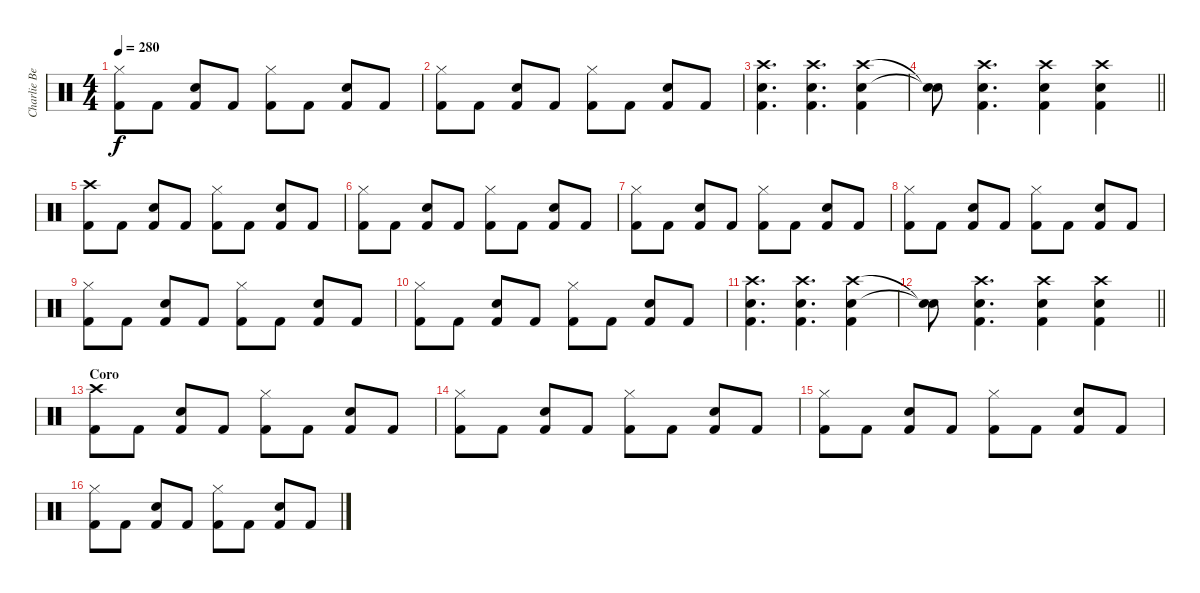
\track ("Charlie Benante" "Charlie Be") {instrument percussion}
\staff {score}
\articulation defaults
\ts (4 4)
\tempo 280
\clef neutral
\ks c
("Hi-Hat (closed)" "Kick (hit) 2").8{dy f} "Kick (hit) 2".8 ("Snare (hit) 2" "Kick (hit) 2").8 "Kick (hit) 2".8 ("Hi-Hat (closed)" "Kick (hit) 2").8 "Kick (hit) 2".8 ("Snare (hit) 2" "Kick (hit) 2").8 "Kick (hit) 2".8 |
("Hi-Hat (closed)" "Kick (hit) 2").8 "Kick (hit) 2".8 ("Snare (hit) 2" "Kick (hit) 2").8 "Kick (hit) 2".8 ("Hi-Hat (closed)" "Kick (hit) 2").8 "Kick (hit) 2".8 ("Snare (hit) 2" "Kick (hit) 2").8 "Kick (hit) 2".8 |
("Crash high (hit)" "Snare (hit) 2" "Kick (hit) 2").4{d} ("Crash high (hit)" "Snare (hit) 2" "Kick (hit) 2").4{d} ("Crash high (hit)" "Snare (hit) 2" "Kick (hit) 2").4 |
\barLineRight lightlight
("Snare (hit)"{t} "Snare (hit)"{t}).8 ("Crash high (hit)" "Snare (hit) 2" "Kick (hit) 2").4{d} ("Crash high (hit)" "Snare (hit) 2" "Kick (hit) 2").4 ("Crash high (hit)" "Snare (hit) 2" "Kick (hit) 2").4 |
("Crash high (hit)" "Kick (hit) 2").8 "Kick (hit) 2".8 ("Snare (hit) 2" "Kick (hit) 2").8 "Kick (hit) 2".8 ("Hi-Hat (closed)" "Kick (hit) 2").8 "Kick (hit) 2".8 ("Snare (hit) 2" "Kick (hit) 2").8 "Kick (hit) 2".8 |
("Hi-Hat (closed)" "Kick (hit) 2").8 "Kick (hit) 2".8 ("Snare (hit) 2" "Kick (hit) 2").8 "Kick (hit) 2".8 ("Hi-Hat (closed)" "Kick (hit) 2").8 "Kick (hit) 2".8 ("Snare (hit) 2" "Kick (hit) 2").8 "Kick (hit) 2".8 |
("Hi-Hat (closed)" "Kick (hit) 2").8 "Kick (hit) 2".8 ("Snare (hit) 2" "Kick (hit) 2").8 "Kick (hit) 2".8 ("Hi-Hat (closed)" "Kick (hit) 2").8 "Kick (hit) 2".8 ("Snare (hit) 2" "Kick (hit) 2").8 "Kick (hit) 2".8 |
("Hi-Hat (closed)" "Kick (hit) 2").8 "Kick (hit) 2".8 ("Snare (hit) 2" "Kick (hit) 2").8 "Kick (hit) 2".8 ("Hi-Hat (closed)" "Kick (hit) 2").8 "Kick (hit) 2".8 ("Snare (hit) 2" "Kick (hit) 2").8 "Kick (hit) 2".8 |
("Hi-Hat (closed)" "Kick (hit) 2").8 "Kick (hit) 2".8 ("Snare (hit) 2" "Kick (hit) 2").8 "Kick (hit) 2".8 ("Hi-Hat (closed)" "Kick (hit) 2").8 "Kick (hit) 2".8 ("Snare (hit) 2" "Kick (hit) 2").8 "Kick (hit) 2".8 |
("Hi-Hat (closed)" "Kick (hit) 2").8 "Kick (hit) 2".8 ("Snare (hit) 2" "Kick (hit) 2").8 "Kick (hit) 2".8 ("Hi-Hat (closed)" "Kick (hit) 2").8 "Kick (hit) 2".8 ("Snare (hit) 2" "Kick (hit) 2").8 "Kick (hit) 2".8 |
("Crash high (hit)" "Snare (hit) 2" "Kick (hit) 2").4{d} ("Crash high (hit)" "Snare (hit) 2" "Kick (hit) 2").4{d} ("Crash high (hit)" "Snare (hit) 2" "Kick (hit) 2").4 |
\barLineRight lightlight
("Snare (hit)"{t} "Snare (hit)"{t}).8 ("Crash high (hit)" "Snare (hit) 2" "Kick (hit) 2").4{d} ("Crash high (hit)" "Snare (hit) 2" "Kick (hit) 2").4 ("Crash high (hit)" "Snare (hit) 2" "Kick (hit) 2").4 |
\section ("" "Coro")
("Crash high (hit)" "Kick (hit) 2").8 "Kick (hit) 2".8 ("Snare (hit) 2" "Kick (hit) 2").8 "Kick (hit) 2".8 ("Hi-Hat (closed)" "Kick (hit) 2").8 "Kick (hit) 2".8 ("Snare (hit) 2" "Kick (hit) 2").8 "Kick (hit) 2".8 |
("Hi-Hat (closed)" "Kick (hit) 2").8 "Kick (hit) 2".8 ("Snare (hit) 2" "Kick (hit) 2").8 "Kick (hit) 2".8 ("Hi-Hat (closed)" "Kick (hit) 2").8 "Kick (hit) 2".8 ("Snare (hit) 2" "Kick (hit) 2").8 "Kick (hit) 2".8 |
("Hi-Hat (closed)" "Kick (hit) 2").8 "Kick (hit) 2".8 ("Snare (hit) 2" "Kick (hit) 2").8 "Kick (hit) 2".8 ("Hi-Hat (closed)" "Kick (hit) 2").8 "Kick (hit) 2".8 ("Snare (hit) 2" "Kick (hit) 2").8 "Kick (hit) 2".8 |
("Hi-Hat (closed)" "Kick (hit) 2").8 "Kick (hit) 2".8 ("Snare (hit) 2" "Kick (hit) 2").8 "Kick (hit) 2".8 ("Hi-Hat (closed)" "Kick (hit) 2").8 "Kick (hit) 2".8 ("Snare (hit) 2" "Kick (hit) 2").8 "Kick (hit) 2".8
